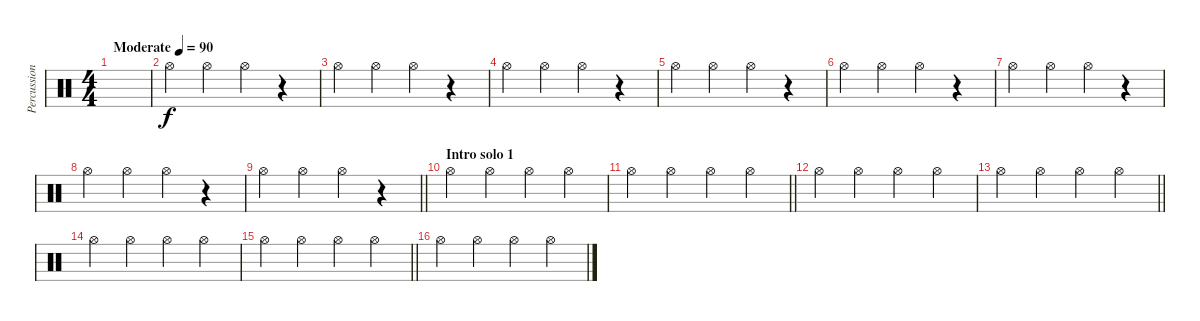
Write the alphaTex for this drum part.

\track ("Percussion" "Percussion") {instrument percussion}
\staff {score}
\articulation defaults
\ts (4 4)
\tempo (90 "Moderate")
\clef neutral
\ks c
|
"Hi-Hat (open)".4 "Hi-Hat (open)".4 "Hi-Hat (open)".4 r.4 |
"Hi-Hat (open)".4 "Hi-Hat (open)".4 "Hi-Hat (open)".4 r.4 |
"Hi-Hat (open)".4 "Hi-Hat (open)".4 "Hi-Hat (open)".4 r.4 |
"Hi-Hat (open)".4 "Hi-Hat (open)".4 "Hi-Hat (open)".4 r.4 |
"Hi-Hat (open)".4 "Hi-Hat (open)".4 "Hi-Hat (open)".4 r.4 |
"Hi-Hat (open)".4 "Hi-Hat (open)".4 "Hi-Hat (open)".4 r.4 |
"Hi-Hat (open)".4 "Hi-Hat (open)".4 "Hi-Hat (open)".4 r.4 |
\barLineRight lightlight "Hi-Hat (open)".4 "Hi-Hat (open)".4 "Hi-Hat (open)".4
r.4 |
\section ("" "Intro solo 1")
"Hi-Hat (open)".4 "Hi-Hat (open)".4 "Hi-Hat (open)".4 "Hi-Hat (open)".4 |
\barLineRight lightlight "Hi-Hat (open)".4 "Hi-Hat (open)".4 "Hi-Hat (open)".4 "Hi-Hat (open)".4
|
"Hi-Hat (open)".4 "Hi-Hat (open)".4 "Hi-Hat (open)".4 "Hi-Hat (open)".4 |
\barLineRight lightlight "Hi-Hat (open)".4 "Hi-Hat (open)".4 "Hi-Hat (open)".4 "Hi-Hat (open)".4
|
"Hi-Hat (open)".4 "Hi-Hat (open)".4 "Hi-Hat (open)".4 "Hi-Hat (open)".4 |
\barLineRight lightlight "Hi-Hat (open)".4 "Hi-Hat (open)".4 "Hi-Hat (open)".4 "Hi-Hat (open)".4
|
"Hi-Hat (open)".4 "Hi-Hat (open)".4 "Hi-Hat (open)".4 "Hi-Hat (open)".4
